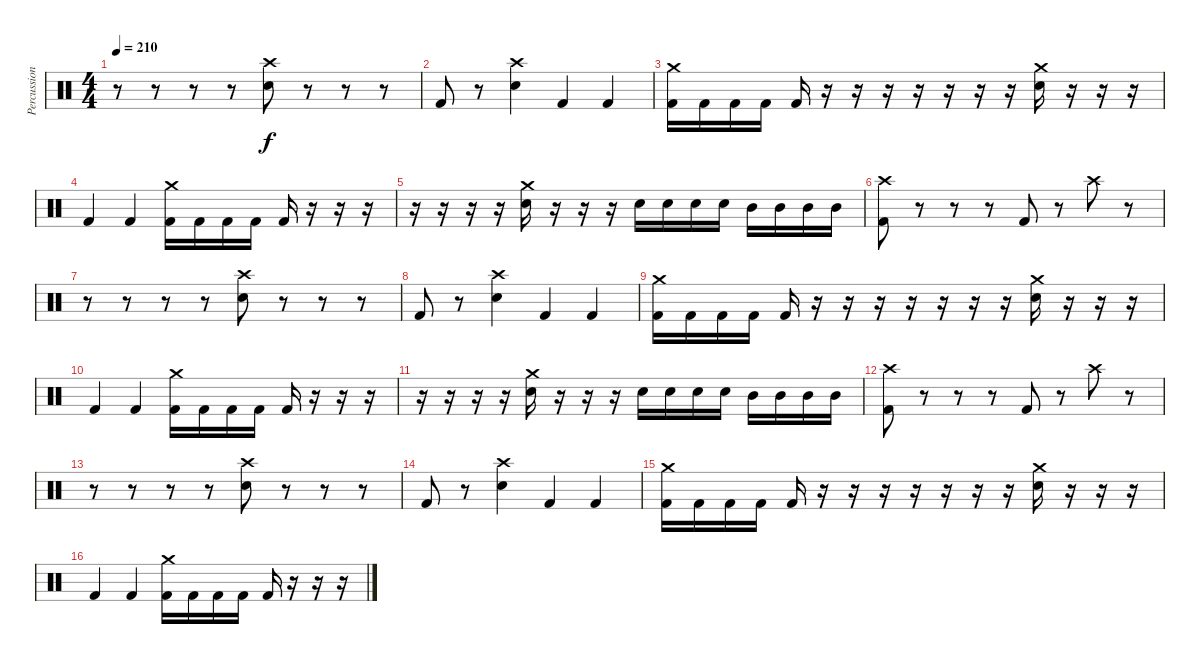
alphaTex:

\track ("Percussion" "Percussion") {instrument percussion}
\staff {score}
\articulation defaults
\ts (4 4)
\tempo 210
\clef neutral
\ks c
r.8{dy f} r.8 r.8 r.8 ("Crash high (hit)" "Snare (hit) 2").8 r.8 r.8 r.8 |
"Kick (hit) 2".8 r.8 ("Crash high (hit)" "Snare (hit) 2").4 "Kick (hit) 2".4 "Kick (hit) 2".4 |
("Crash medium (hit)" "Kick (hit) 2").16 "Kick (hit) 2".16 "Kick (hit) 2".16 "Kick (hit) 2".16 "Kick (hit) 2".16 r.16 r.16 r.16 r.16 r.16 r.16 r.16 ("Crash medium (hit)" "Snare (hit) 2").16 r.16 r.16 r.16 |
"Kick (hit) 2".4 "Kick (hit) 2".4 ("Crash medium (hit)" "Kick (hit) 2").16 "Kick (hit) 2".16 "Kick (hit) 2".16 "Kick (hit) 2".16 "Kick (hit) 2".16 r.16 r.16 r.16 |
r.16 r.16 r.16 r.16 ("Crash medium (hit)" "Snare (hit) 2").16 r.16 r.16 r.16 "Snare (hit) 2".16 "Snare (hit) 2".16 "Snare (hit) 2".16 "Snare (hit) 2".16 "Mid Tom (hit)".16 "Mid Tom (hit)".16 "Mid Tom (hit)".16 "Mid Tom (hit)".16 |
("Crash high (hit)" "Kick (hit) 2").8 r.8 r.8 r.8 "Kick (hit) 2".8 r.8 "Crash high (hit)".8 r.8 |
r.8 r.8 r.8 r.8 ("Crash high (hit)" "Snare (hit) 2").8 r.8 r.8 r.8 |
"Kick (hit) 2".8 r.8 ("Crash high (hit)" "Snare (hit) 2").4 "Kick (hit) 2".4 "Kick (hit) 2".4 |
("Crash medium (hit)" "Kick (hit) 2").16 "Kick (hit) 2".16 "Kick (hit) 2".16 "Kick (hit) 2".16 "Kick (hit) 2".16 r.16 r.16 r.16 r.16 r.16 r.16 r.16 ("Crash medium (hit)" "Snare (hit) 2").16 r.16 r.16 r.16 |
"Kick (hit) 2".4 "Kick (hit) 2".4 ("Crash medium (hit)" "Kick (hit) 2").16 "Kick (hit) 2".16 "Kick (hit) 2".16 "Kick (hit) 2".16 "Kick (hit) 2".16 r.16 r.16 r.16 |
r.16 r.16 r.16 r.16 ("Crash medium (hit)" "Snare (hit) 2").16 r.16 r.16 r.16 "Snare (hit) 2".16 "Snare (hit) 2".16 "Snare (hit) 2".16 "Snare (hit) 2".16 "Mid Tom (hit)".16 "Mid Tom (hit)".16 "Mid Tom (hit)".16 "Mid Tom (hit)".16 |
("Crash high (hit)" "Kick (hit) 2").8 r.8 r.8 r.8 "Kick (hit) 2".8 r.8 "Crash high (hit)".8 r.8 |
r.8 r.8 r.8 r.8 ("Crash high (hit)" "Snare (hit) 2").8 r.8 r.8 r.8 |
"Kick (hit) 2".8 r.8 ("Crash high (hit)" "Snare (hit) 2").4 "Kick (hit) 2".4 "Kick (hit) 2".4 |
("Crash medium (hit)" "Kick (hit) 2").16 "Kick (hit) 2".16 "Kick (hit) 2".16 "Kick (hit) 2".16 "Kick (hit) 2".16 r.16 r.16 r.16 r.16 r.16 r.16 r.16 ("Crash medium (hit)" "Snare (hit) 2").16 r.16 r.16 r.16 |
"Kick (hit) 2".4 "Kick (hit) 2".4 ("Crash medium (hit)" "Kick (hit) 2").16 "Kick (hit) 2".16 "Kick (hit) 2".16 "Kick (hit) 2".16 "Kick (hit) 2".16 r.16 r.16 r.16
